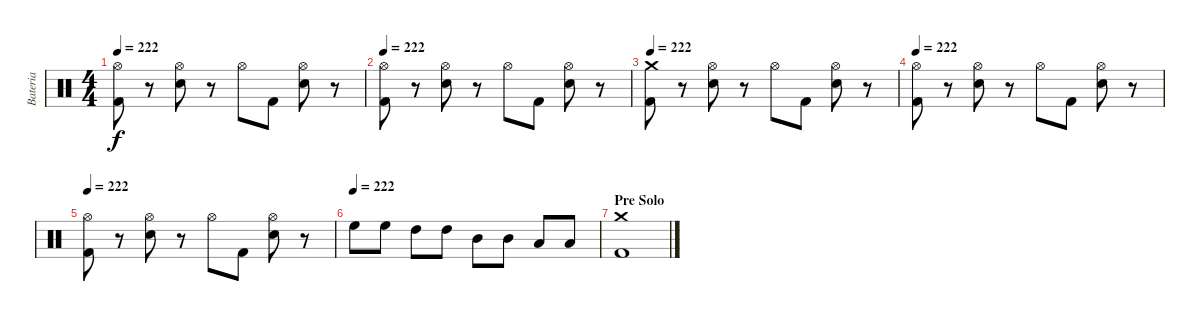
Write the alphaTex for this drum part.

\track ("Bateria" "Bateria") {instrument percussion}
\staff {score}
\articulation defaults
\ts (4 4)
\tempo 222
\clef neutral
\ks c
("Hi-Hat (open)" "Kick (hit) 2").8{dy f} r.8 ("Hi-Hat (open)" "Electric Snare (hit)").8 r.8 "Hi-Hat (open)".8 "Kick (hit) 2".8 ("Hi-Hat (open)" "Electric Snare (hit)").8 r.8 |
\tempo 222
("Hi-Hat (open)" "Kick (hit) 2").8 r.8 ("Hi-Hat (open)" "Electric Snare (hit)").8 r.8 "Hi-Hat (open)".8 "Kick (hit) 2".8 ("Hi-Hat (open)" "Electric Snare (hit)").8 r.8 |
\tempo 222
("Crash medium (hit)" "Kick (hit) 2").8 r.8 ("Hi-Hat (open)" "Electric Snare (hit)").8 r.8 "Hi-Hat (open)".8 "Kick (hit) 2".8 ("Hi-Hat (open)" "Electric Snare (hit)").8 r.8 |
\tempo 222
("Hi-Hat (open)" "Kick (hit) 2").8 r.8 ("Hi-Hat (open)" "Electric Snare (hit)").8 r.8 "Hi-Hat (open)".8 "Kick (hit) 2".8 ("Hi-Hat (open)" "Electric Snare (hit)").8 r.8 |
\tempo 222
("Hi-Hat (open)" "Kick (hit) 2").8 r.8 ("Hi-Hat (open)" "Electric Snare (hit)").8 r.8 "Hi-Hat (open)".8 "Kick (hit) 2".8 ("Hi-Hat (open)" "Electric Snare (hit)").8 r.8 |
\tempo (222)
"High Floor Tom (hit)".8 "High Floor Tom (hit)".8 "High Tom (hit)".8 "High Tom (hit)".8 "Mid Tom (hit)".8 "Mid Tom (hit)".8 "Low Tom (hit)".8 "Low Tom (hit)".8 |
\section ("" "Pre Solo")
("Kick (hit) 2" "Crash medium (hit)").1
